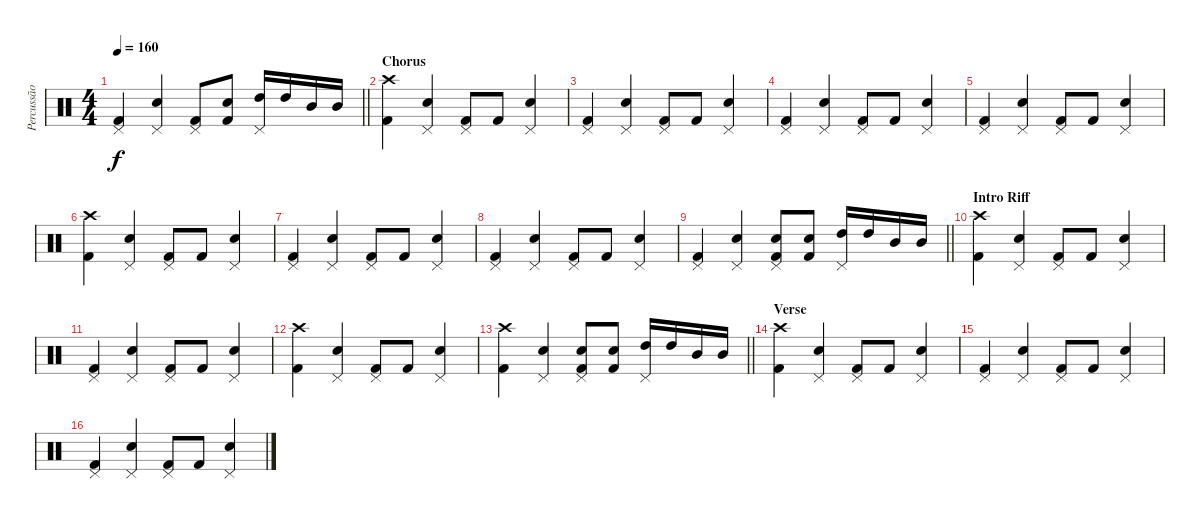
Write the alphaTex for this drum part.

\track ("Percussão" "Percussão") {instrument percussion}
\staff {score}
\articulation defaults
\ts (4 4)
\tempo 160
\clef neutral
\barLineRight lightlight
\ks c
("Pedal Hi-Hat (hit)" "Kick (hit) 2").4{dy f} ("Pedal Hi-Hat (hit)" "Snare (hit) 2").4 ("Pedal Hi-Hat (hit)" "Kick (hit) 2").8 ("Snare (hit) 2" "Kick (hit) 2").8 ("Pedal Hi-Hat (hit)" "High Tom (hit)").16 "High Tom (hit)".16 "Mid Tom (hit)".16 "Mid Tom (hit)".16 |
\section ("" "Chorus")
("Crash high (hit)" "Kick (hit) 2").4 ("Pedal Hi-Hat (hit)" "Snare (hit) 2").4 ("Pedal Hi-Hat (hit)" "Kick (hit) 2").8 "Kick (hit) 2".8 ("Pedal Hi-Hat (hit)" "Snare (hit) 2").4 |
("Pedal Hi-Hat (hit)" "Kick (hit) 2").4 ("Pedal Hi-Hat (hit)" "Snare (hit) 2").4 ("Pedal Hi-Hat (hit)" "Kick (hit) 2").8 "Kick (hit) 2".8 ("Pedal Hi-Hat (hit)" "Snare (hit) 2").4 |
("Pedal Hi-Hat (hit)" "Kick (hit) 2").4 ("Pedal Hi-Hat (hit)" "Snare (hit) 2").4 ("Pedal Hi-Hat (hit)" "Kick (hit) 2").8 "Kick (hit) 2".8 ("Pedal Hi-Hat (hit)" "Snare (hit) 2").4 |
("Pedal Hi-Hat (hit)" "Kick (hit) 2").4 ("Pedal Hi-Hat (hit)" "Snare (hit) 2").4 ("Pedal Hi-Hat (hit)" "Kick (hit) 2").8 "Kick (hit) 2".8 ("Pedal Hi-Hat (hit)" "Snare (hit) 2").4 |
("Crash high (hit)" "Kick (hit) 2").4 ("Pedal Hi-Hat (hit)" "Snare (hit) 2").4 ("Pedal Hi-Hat (hit)" "Kick (hit) 2").8 "Kick (hit) 2".8 ("Pedal Hi-Hat (hit)" "Snare (hit) 2").4 |
("Pedal Hi-Hat (hit)" "Kick (hit) 2").4 ("Pedal Hi-Hat (hit)" "Snare (hit) 2").4 ("Pedal Hi-Hat (hit)" "Kick (hit) 2").8 "Kick (hit) 2".8 ("Pedal Hi-Hat (hit)" "Snare (hit) 2").4 |
("Pedal Hi-Hat (hit)" "Kick (hit) 2").4 ("Pedal Hi-Hat (hit)" "Snare (hit) 2").4 ("Pedal Hi-Hat (hit)" "Kick (hit) 2").8 "Kick (hit) 2".8 ("Pedal Hi-Hat (hit)" "Snare (hit) 2").4 |
\barLineRight lightlight
("Pedal Hi-Hat (hit)" "Kick (hit) 2").4 ("Pedal Hi-Hat (hit)" "Snare (hit) 2").4 ("Pedal Hi-Hat (hit)" "Snare (hit) 2" "Kick (hit) 2").8 ("Snare (hit) 2" "Kick (hit) 2").8 ("Pedal Hi-Hat (hit)" "High Tom (hit)").16 "High Tom (hit)".16 "Mid Tom (hit)".16 "Mid Tom (hit)".16 |
\section ("" "Intro Riff")
("Crash high (hit)" "Kick (hit) 2").4 ("Pedal Hi-Hat (hit)" "Snare (hit) 2").4 ("Pedal Hi-Hat (hit)" "Kick (hit) 2").8 "Kick (hit) 2".8 ("Pedal Hi-Hat (hit)" "Snare (hit) 2").4 |
("Pedal Hi-Hat (hit)" "Kick (hit) 2").4 ("Pedal Hi-Hat (hit)" "Snare (hit) 2").4 ("Pedal Hi-Hat (hit)" "Kick (hit) 2").8 "Kick (hit) 2".8 ("Pedal Hi-Hat (hit)" "Snare (hit) 2").4 |
("Crash high (hit)" "Kick (hit) 2").4 ("Pedal Hi-Hat (hit)" "Snare (hit) 2").4 ("Pedal Hi-Hat (hit)" "Kick (hit) 2").8 "Kick (hit) 2".8 ("Pedal Hi-Hat (hit)" "Snare (hit) 2").4 |
\barLineRight lightlight
("Crash high (hit)" "Kick (hit) 2").4 ("Pedal Hi-Hat (hit)" "Snare (hit) 2").4 ("Pedal Hi-Hat (hit)" "Snare (hit) 2" "Kick (hit) 2").8 ("Snare (hit) 2" "Kick (hit) 2").8 ("Pedal Hi-Hat (hit)" "High Tom (hit)").16 "High Tom (hit)".16 "Mid Tom (hit)".16 "Mid Tom (hit)".16 |
\section ("" "Verse")
("Crash high (hit)" "Kick (hit) 2").4 ("Pedal Hi-Hat (hit)" "Snare (hit) 2").4 ("Pedal Hi-Hat (hit)" "Kick (hit) 2").8 "Kick (hit) 2".8 ("Pedal Hi-Hat (hit)" "Snare (hit) 2").4 |
("Pedal Hi-Hat (hit)" "Kick (hit) 2").4 ("Pedal Hi-Hat (hit)" "Snare (hit) 2").4 ("Pedal Hi-Hat (hit)" "Kick (hit) 2").8 "Kick (hit) 2".8 ("Pedal Hi-Hat (hit)" "Snare (hit) 2").4 |
("Pedal Hi-Hat (hit)" "Kick (hit) 2").4 ("Pedal Hi-Hat (hit)" "Snare (hit) 2").4 ("Pedal Hi-Hat (hit)" "Kick (hit) 2").8 "Kick (hit) 2".8 ("Pedal Hi-Hat (hit)" "Snare (hit) 2").4
